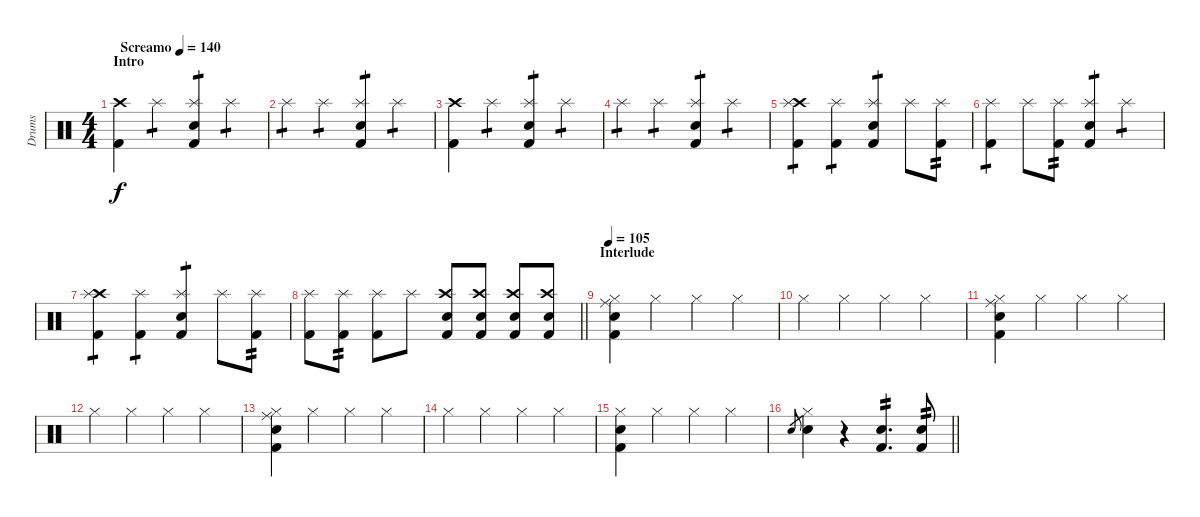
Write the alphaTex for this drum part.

\track ("Drums" "Drums") {instrument percussion}
\staff {score}
\articulation defaults
\ts (4 4)
\section ("" "Intro")
\tempo (140 "Screamo")
\tempo 135
\tempo (140 "Screamo")
\clef neutral
\ks c
("Kick (hit) 2" "Crash high (hit)").4{dy f} "Splash (hit)".4{tp 1} ("Kick (hit) 2" "Electric Snare (hit)" "Splash (hit)").4{tp 1} "Splash (hit)".4{tp 1} |
"Splash (hit)".4{tp 1} "Splash (hit)".4{tp 1} ("Kick (hit) 2" "Electric Snare (hit)" "Splash (hit)").4{tp 1} "Splash (hit)".4{tp 1} |
("Kick (hit) 2" "Crash high (hit)").4 "Splash (hit)".4{tp 1} ("Kick (hit) 2" "Electric Snare (hit)" "Splash (hit)").4{tp 1} "Splash (hit)".4{tp 1} |
"Splash (hit)".4{tp 1} "Splash (hit)".4{tp 1} ("Kick (hit) 2" "Electric Snare (hit)" "Splash (hit)").4{tp 1} "Splash (hit)".4{tp 1} |
("Kick (hit) 2" "Crash high (hit)" "Splash (hit)").4{tp 1} ("Kick (hit) 2" "Splash (hit)").4{tp 1} ("Kick (hit) 2" "Electric Snare (hit)" "Splash (hit)").4{tp 1} "Splash (hit)".8 ("Kick (hit) 2" "Splash (hit)").8{tp 2} |
("Kick (hit) 2" "Splash (hit)").4{tp 1} "Splash (hit)".8 ("Kick (hit) 2" "Splash (hit)").8{tp 2} ("Kick (hit) 2" "Electric Snare (hit)" "Splash (hit)").4{tp 1} "Splash (hit)".4{tp 1} |
("Kick (hit) 2" "Crash high (hit)" "Splash (hit)").4{tp 1} ("Kick (hit) 2" "Splash (hit)").4{tp 1} ("Kick (hit) 2" "Electric Snare (hit)" "Splash (hit)").4{tp 1} "Splash (hit)".8 ("Kick (hit) 2" "Splash (hit)").8{tp 2} |
\barLineRight lightlight
("Kick (hit) 2" "Splash (hit)").8 ("Kick (hit) 2" "Splash (hit)").8{tp 2} ("Kick (hit) 2" "Splash (hit)").8 "Splash (hit)".8 ("Kick (hit) 2" "Electric Snare (hit)" "Crash high (hit)").8 ("Kick (hit) 2" "Electric Snare (hit)" "Crash high (hit)").8 ("Kick (hit) 2" "Electric Snare (hit)" "Crash high (hit)").8 ("Kick (hit) 2" "Electric Snare (hit)" "Crash high (hit)").8 |
\section ("" "Interlude")
\tempo 105
("Kick (hit) 2" "Electric Snare (hit)" "Ride (middle)" "Hi-Hat (closed)").4 "Hi-Hat (closed)".4 "Hi-Hat (closed)".4 "Hi-Hat (closed)".4 |
"Hi-Hat (closed)".4 "Hi-Hat (closed)".4 "Hi-Hat (closed)".4 "Hi-Hat (closed)".4 |
("Kick (hit) 2" "Electric Snare (hit)" "Ride (middle)" "Hi-Hat (closed)").4 "Hi-Hat (closed)".4 "Hi-Hat (closed)".4 "Hi-Hat (closed)".4 |
"Hi-Hat (closed)".4 "Hi-Hat (closed)".4 "Hi-Hat (closed)".4 "Hi-Hat (closed)".4 |
("Kick (hit) 2" "Electric Snare (hit)" "Ride (middle)" "Hi-Hat (closed)").4 "Hi-Hat (closed)".4 "Hi-Hat (closed)".4 "Hi-Hat (closed)".4 |
"Hi-Hat (closed)".4 "Hi-Hat (closed)".4 "Hi-Hat (closed)".4 "Hi-Hat (closed)".4 |
("Kick (hit) 2" "Electric Snare (hit)" "Hi-Hat (closed)").4 "Hi-Hat (closed)".4 "Hi-Hat (closed)".4 "Hi-Hat (closed)".4 |
\barLineRight lightlight "Electric Snare (hit)".8{gr}
("Electric Snare (hit)" "Hi-Hat (closed)").4 r.4 ("Kick (hit) 2" "Electric Snare (hit)").4{d tp 2} ("Kick (hit) 2" "Electric Snare (hit)").8{tp 2}
